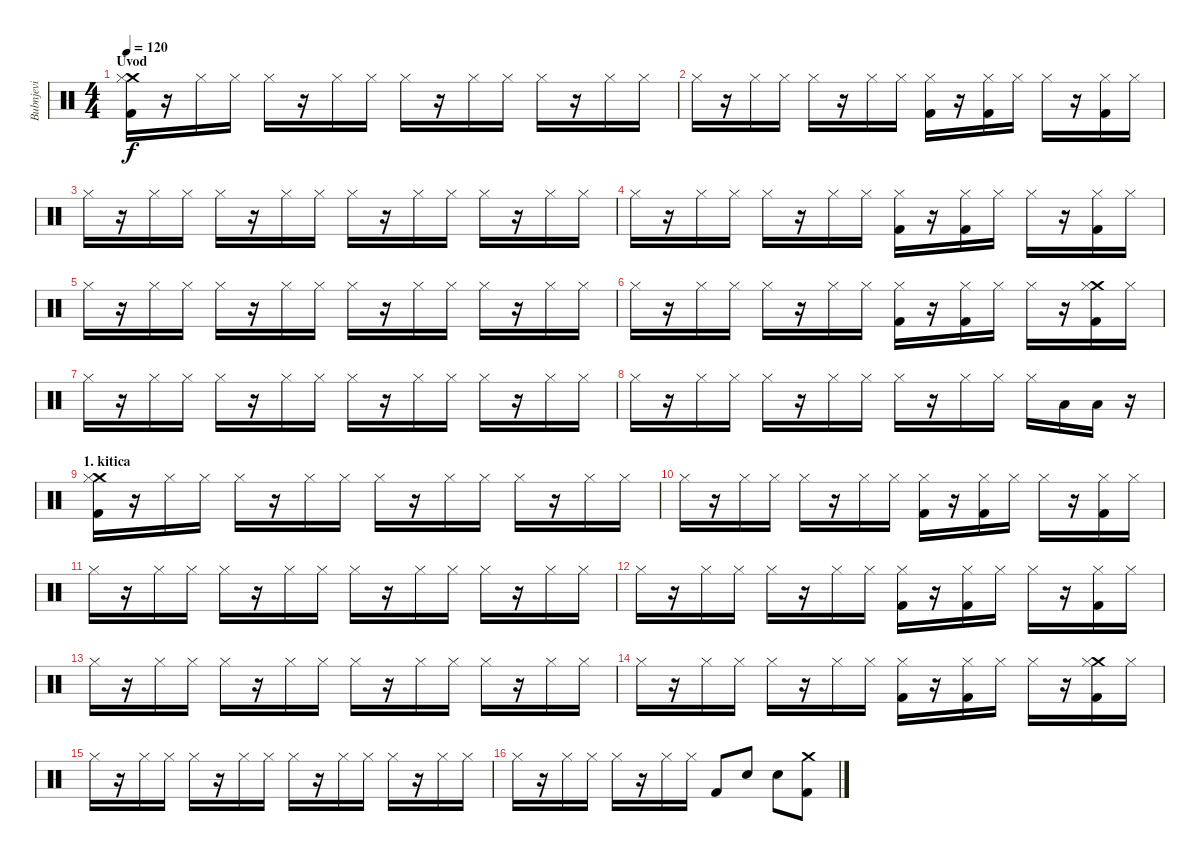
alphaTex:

\track ("Bubnjevi" "Bubnjevi") {instrument percussion}
\staff {score}
\articulation defaults
\ts (4 4)
\section ("" "Uvod")
\tempo 120
\clef neutral
\ks c
("Crash medium (hit)" "Hi-Hat (closed)" "Kick (hit) 2").16{dy f} r.16 "Hi-Hat (closed)".16 "Hi-Hat (closed)".16 "Hi-Hat (closed)".16 r.16 "Hi-Hat (closed)".16 "Hi-Hat (closed)".16 "Hi-Hat (closed)".16 r.16 "Hi-Hat (closed)".16 "Hi-Hat (closed)".16 "Hi-Hat (closed)".16 r.16 "Hi-Hat (closed)".16 "Hi-Hat (closed)".16 |
"Hi-Hat (closed)".16 r.16 "Hi-Hat (closed)".16 "Hi-Hat (closed)".16 "Hi-Hat (closed)".16 r.16 "Hi-Hat (closed)".16 "Hi-Hat (closed)".16 ("Hi-Hat (closed)" "Kick (hit) 2").16 r.16 ("Hi-Hat (closed)" "Kick (hit) 2").16 "Hi-Hat (closed)".16 "Hi-Hat (closed)".16 r.16 ("Hi-Hat (closed)" "Kick (hit) 2").16 "Hi-Hat (closed)".16 |
"Hi-Hat (closed)".16 r.16 "Hi-Hat (closed)".16 "Hi-Hat (closed)".16 "Hi-Hat (closed)".16 r.16 "Hi-Hat (closed)".16 "Hi-Hat (closed)".16 "Hi-Hat (closed)".16 r.16 "Hi-Hat (closed)".16 "Hi-Hat (closed)".16 "Hi-Hat (closed)".16 r.16 "Hi-Hat (closed)".16 "Hi-Hat (closed)".16 |
"Hi-Hat (closed)".16 r.16 "Hi-Hat (closed)".16 "Hi-Hat (closed)".16 "Hi-Hat (closed)".16 r.16 "Hi-Hat (closed)".16 "Hi-Hat (closed)".16 ("Hi-Hat (closed)" "Kick (hit) 2").16 r.16 ("Hi-Hat (closed)" "Kick (hit) 2").16 "Hi-Hat (closed)".16 "Hi-Hat (closed)".16 r.16 ("Hi-Hat (closed)" "Kick (hit) 2").16 "Hi-Hat (closed)".16 |
"Hi-Hat (closed)".16 r.16 "Hi-Hat (closed)".16 "Hi-Hat (closed)".16 "Hi-Hat (closed)".16 r.16 "Hi-Hat (closed)".16 "Hi-Hat (closed)".16 "Hi-Hat (closed)".16 r.16 "Hi-Hat (closed)".16 "Hi-Hat (closed)".16 "Hi-Hat (closed)".16 r.16 "Hi-Hat (closed)".16 "Hi-Hat (closed)".16 |
"Hi-Hat (closed)".16 r.16 "Hi-Hat (closed)".16 "Hi-Hat (closed)".16 "Hi-Hat (closed)".16 r.16 "Hi-Hat (closed)".16 "Hi-Hat (closed)".16 ("Hi-Hat (closed)" "Kick (hit) 2").16 r.16 ("Hi-Hat (closed)" "Kick (hit) 2").16 "Hi-Hat (closed)".16 "Hi-Hat (closed)".16 r.16 ("Crash medium (hit)" "Hi-Hat (closed)" "Kick (hit) 2").16 "Hi-Hat (closed)".16 |
"Hi-Hat (closed)".16 r.16 "Hi-Hat (closed)".16 "Hi-Hat (closed)".16 "Hi-Hat (closed)".16 r.16 "Hi-Hat (closed)".16 "Hi-Hat (closed)".16 "Hi-Hat (closed)".16 r.16 "Hi-Hat (closed)".16 "Hi-Hat (closed)".16 "Hi-Hat (closed)".16 r.16 "Hi-Hat (closed)".16 "Hi-Hat (closed)".16 |
"Hi-Hat (closed)".16 r.16 "Hi-Hat (closed)".16 "Hi-Hat (closed)".16 "Hi-Hat (closed)".16 r.16 "Hi-Hat (closed)".16 "Hi-Hat (closed)".16 "Hi-Hat (closed)".16 r.16 "Hi-Hat (closed)".16 "Hi-Hat (closed)".16 "Hi-Hat (closed)".16 "Low Tom (hit)".16 "Low Tom (hit)".16 r.16 |
\section ("" "1. kitica")
("Crash medium (hit)" "Hi-Hat (closed)" "Kick (hit) 2").16 r.16 "Hi-Hat (closed)".16 "Hi-Hat (closed)".16 "Hi-Hat (closed)".16 r.16 "Hi-Hat (closed)".16 "Hi-Hat (closed)".16 "Hi-Hat (closed)".16 r.16 "Hi-Hat (closed)".16 "Hi-Hat (closed)".16 "Hi-Hat (closed)".16 r.16 "Hi-Hat (closed)".16 "Hi-Hat (closed)".16 |
"Hi-Hat (closed)".16 r.16 "Hi-Hat (closed)".16 "Hi-Hat (closed)".16 "Hi-Hat (closed)".16 r.16 "Hi-Hat (closed)".16 "Hi-Hat (closed)".16 ("Hi-Hat (closed)" "Kick (hit) 2").16 r.16 ("Hi-Hat (closed)" "Kick (hit) 2").16 "Hi-Hat (closed)".16 "Hi-Hat (closed)".16 r.16 ("Hi-Hat (closed)" "Kick (hit) 2").16 "Hi-Hat (closed)".16 |
"Hi-Hat (closed)".16 r.16 "Hi-Hat (closed)".16 "Hi-Hat (closed)".16 "Hi-Hat (closed)".16 r.16 "Hi-Hat (closed)".16 "Hi-Hat (closed)".16 "Hi-Hat (closed)".16 r.16 "Hi-Hat (closed)".16 "Hi-Hat (closed)".16 "Hi-Hat (closed)".16 r.16 "Hi-Hat (closed)".16 "Hi-Hat (closed)".16 |
"Hi-Hat (closed)".16 r.16 "Hi-Hat (closed)".16 "Hi-Hat (closed)".16 "Hi-Hat (closed)".16 r.16 "Hi-Hat (closed)".16 "Hi-Hat (closed)".16 ("Hi-Hat (closed)" "Kick (hit) 2").16 r.16 ("Hi-Hat (closed)" "Kick (hit) 2").16 "Hi-Hat (closed)".16 "Hi-Hat (closed)".16 r.16 ("Hi-Hat (closed)" "Kick (hit) 2").16 "Hi-Hat (closed)".16 |
"Hi-Hat (closed)".16 r.16 "Hi-Hat (closed)".16 "Hi-Hat (closed)".16 "Hi-Hat (closed)".16 r.16 "Hi-Hat (closed)".16 "Hi-Hat (closed)".16 "Hi-Hat (closed)".16 r.16 "Hi-Hat (closed)".16 "Hi-Hat (closed)".16 "Hi-Hat (closed)".16 r.16 "Hi-Hat (closed)".16 "Hi-Hat (closed)".16 |
"Hi-Hat (closed)".16 r.16 "Hi-Hat (closed)".16 "Hi-Hat (closed)".16 "Hi-Hat (closed)".16 r.16 "Hi-Hat (closed)".16 "Hi-Hat (closed)".16 ("Hi-Hat (closed)" "Kick (hit) 2").16 r.16 ("Hi-Hat (closed)" "Kick (hit) 2").16 "Hi-Hat (closed)".16 "Hi-Hat (closed)".16 r.16 ("Crash medium (hit)" "Hi-Hat (closed)" "Kick (hit) 2").16 "Hi-Hat (closed)".16 |
"Hi-Hat (closed)".16 r.16 "Hi-Hat (closed)".16 "Hi-Hat (closed)".16 "Hi-Hat (closed)".16 r.16 "Hi-Hat (closed)".16 "Hi-Hat (closed)".16 "Hi-Hat (closed)".16 r.16 "Hi-Hat (closed)".16 "Hi-Hat (closed)".16 "Hi-Hat (closed)".16 r.16 "Hi-Hat (closed)".16 "Hi-Hat (closed)".16 |
"Hi-Hat (closed)".16 r.16 "Hi-Hat (closed)".16 "Hi-Hat (closed)".16 "Hi-Hat (closed)".16 r.16 "Hi-Hat (closed)".16 "Hi-Hat (closed)".16 "Kick (hit) 2".8 "Electric Snare (hit)".8 "Electric Snare (hit)".8 ("Crash medium (hit)" "Kick (hit) 2").8
